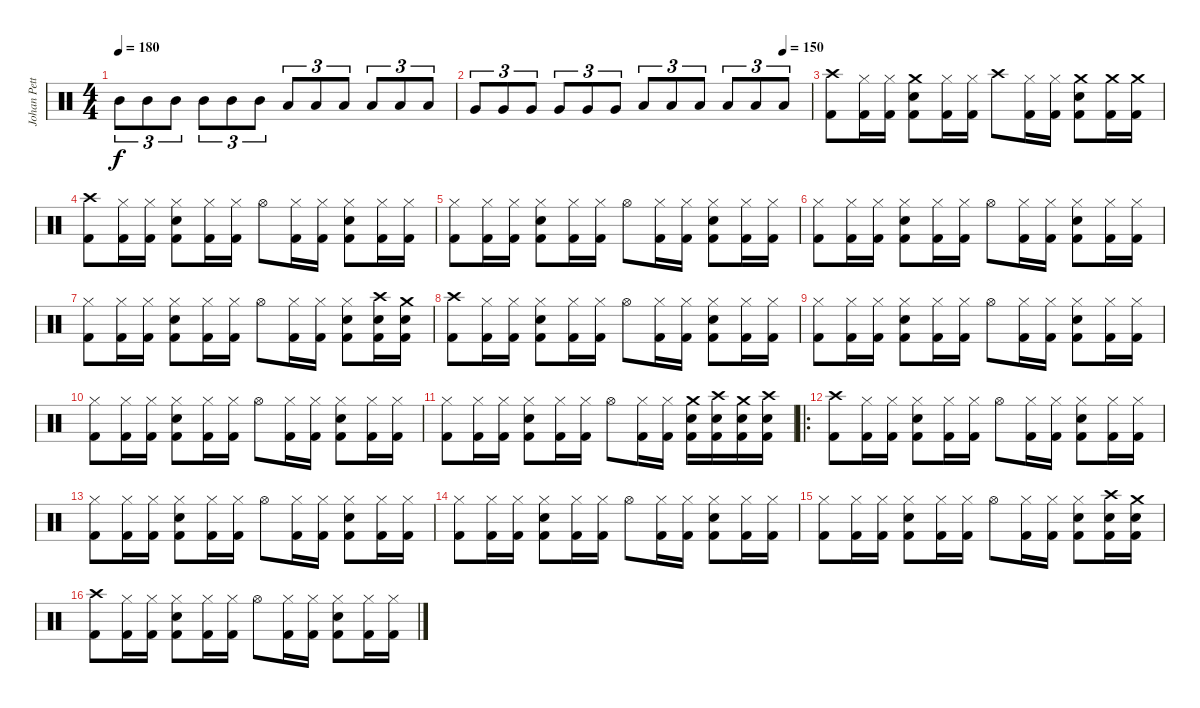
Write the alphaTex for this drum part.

\track ("Johan Petterson" "Johan Pett") {instrument percussion}
\staff {score}
\articulation defaults
\ts (4 4)
\tempo 180
\clef neutral
\ks c "Mid Tom (hit)".8{tu (3 2) dy f} "Mid Tom (hit)".8{tu (3 2)} "Mid Tom (hit)".8{tu (3 2)} "Mid Tom (hit)".8{tu (3 2)} "Mid Tom (hit)".8{tu (3 2)} "Mid Tom (hit)".8{tu (3 2)} "Low Tom (hit)".8{tu (3 2)} "Low Tom (hit)".8{tu (3 2)} "Low Tom (hit)".8{tu (3 2)} "Low Tom (hit)".8{tu (3 2)} "Low Tom (hit)".8{tu (3 2)} "Low Tom (hit)".8{tu (3 2)}
|
\tempo (150 0.9166666666666666)
"Very Low Tom (hit)".8{tu (3 2)} "Very Low Tom (hit)".8{tu (3 2)} "Very Low Tom (hit)".8{tu (3 2)} "Very Low Tom (hit)".8{tu (3 2)} "Very Low Tom (hit)".8{tu (3 2)} "Very Low Tom (hit)".8{tu (3 2)} "Low Floor Tom (hit)".8{tu (3 2)} "Low Floor Tom (hit)".8{tu (3 2)} "Low Floor Tom (hit)".8{tu (3 2)} "Low Floor Tom (hit)".8{tu (3 2)} "Low Floor Tom (hit)".8{tu (3 2)} "Low Floor Tom (hit)".8{tu (3 2)} |
("Crash high (hit)" "Kick (hit) 2").8 ("Hi-Hat (closed)" "Kick (hit) 2").16 ("Hi-Hat (closed)" "Kick (hit) 2").16 ("Crash medium (hit)" "Snare (hit) 2" "Kick (hit) 2").8 ("Hi-Hat (closed)" "Kick (hit) 2").16 ("Hi-Hat (closed)" "Kick (hit) 2").16 "Crash high (hit)".8 ("Hi-Hat (closed)" "Kick (hit) 2").16 ("Hi-Hat (closed)" "Kick (hit) 2").16 ("Crash medium (hit)" "Snare (hit) 2" "Kick (hit) 2").8 ("Crash medium (hit)" "Kick (hit) 2").16 ("Crash medium (hit)" "Kick (hit) 2").16 |
("Crash high (hit)" "Kick (hit) 2").8 ("Hi-Hat (closed)" "Kick (hit) 2").16 ("Hi-Hat (closed)" "Kick (hit) 2").16 ("Hi-Hat (closed)" "Snare (hit) 2" "Kick (hit) 2").8 ("Hi-Hat (closed)" "Kick (hit) 2").16 ("Hi-Hat (closed)" "Kick (hit) 2").16 "Hi-Hat (open)".8 ("Hi-Hat (closed)" "Kick (hit) 2").16 ("Hi-Hat (closed)" "Kick (hit) 2").16 ("Hi-Hat (closed)" "Snare (hit) 2" "Kick (hit) 2").8 ("Hi-Hat (closed)" "Kick (hit) 2").16 ("Hi-Hat (closed)" "Kick (hit) 2").16 |
("Hi-Hat (closed)" "Kick (hit) 2").8 ("Hi-Hat (closed)" "Kick (hit) 2").16 ("Hi-Hat (closed)" "Kick (hit) 2").16 ("Hi-Hat (closed)" "Snare (hit) 2" "Kick (hit) 2").8 ("Hi-Hat (closed)" "Kick (hit) 2").16 ("Hi-Hat (closed)" "Kick (hit) 2").16 "Hi-Hat (open)".8 ("Hi-Hat (closed)" "Kick (hit) 2").16 ("Hi-Hat (closed)" "Kick (hit) 2").16 ("Hi-Hat (closed)" "Snare (hit) 2" "Kick (hit) 2").8 ("Hi-Hat (closed)" "Kick (hit) 2").16 ("Hi-Hat (closed)" "Kick (hit) 2").16 |
("Hi-Hat (closed)" "Kick (hit) 2").8 ("Hi-Hat (closed)" "Kick (hit) 2").16 ("Hi-Hat (closed)" "Kick (hit) 2").16 ("Hi-Hat (closed)" "Snare (hit) 2" "Kick (hit) 2").8 ("Hi-Hat (closed)" "Kick (hit) 2").16 ("Hi-Hat (closed)" "Kick (hit) 2").16 "Hi-Hat (open)".8 ("Hi-Hat (closed)" "Kick (hit) 2").16 ("Hi-Hat (closed)" "Kick (hit) 2").16 ("Hi-Hat (closed)" "Snare (hit) 2" "Kick (hit) 2").8 ("Hi-Hat (closed)" "Kick (hit) 2").16 ("Hi-Hat (closed)" "Kick (hit) 2").16 |
("Hi-Hat (closed)" "Kick (hit) 2").8 ("Hi-Hat (closed)" "Kick (hit) 2").16 ("Hi-Hat (closed)" "Kick (hit) 2").16 ("Hi-Hat (closed)" "Snare (hit) 2" "Kick (hit) 2").8 ("Hi-Hat (closed)" "Kick (hit) 2").16 ("Hi-Hat (closed)" "Kick (hit) 2").16 "Hi-Hat (open)".8 ("Hi-Hat (closed)" "Kick (hit) 2").16 ("Hi-Hat (closed)" "Kick (hit) 2").16 ("Hi-Hat (closed)" "Snare (hit) 2" "Kick (hit) 2").8 ("Crash high (hit)" "Snare (hit) 2" "Kick (hit) 2").16 ("Crash medium (hit)" "Snare (hit) 2" "Kick (hit) 2").16 |
("Crash high (hit)" "Kick (hit) 2").8 ("Hi-Hat (closed)" "Kick (hit) 2").16 ("Hi-Hat (closed)" "Kick (hit) 2").16 ("Hi-Hat (closed)" "Snare (hit) 2" "Kick (hit) 2").8 ("Hi-Hat (closed)" "Kick (hit) 2").16 ("Hi-Hat (closed)" "Kick (hit) 2").16 "Hi-Hat (open)".8 ("Hi-Hat (closed)" "Kick (hit) 2").16 ("Hi-Hat (closed)" "Kick (hit) 2").16 ("Hi-Hat (closed)" "Snare (hit) 2" "Kick (hit) 2").8 ("Hi-Hat (closed)" "Kick (hit) 2").16 ("Hi-Hat (closed)" "Kick (hit) 2").16 |
("Hi-Hat (closed)" "Kick (hit) 2").8 ("Hi-Hat (closed)" "Kick (hit) 2").16 ("Hi-Hat (closed)" "Kick (hit) 2").16 ("Hi-Hat (closed)" "Snare (hit) 2" "Kick (hit) 2").8 ("Hi-Hat (closed)" "Kick (hit) 2").16 ("Hi-Hat (closed)" "Kick (hit) 2").16 "Hi-Hat (open)".8 ("Hi-Hat (closed)" "Kick (hit) 2").16 ("Hi-Hat (closed)" "Kick (hit) 2").16 ("Hi-Hat (closed)" "Snare (hit) 2" "Kick (hit) 2").8 ("Hi-Hat (closed)" "Kick (hit) 2").16 ("Hi-Hat (closed)" "Kick (hit) 2").16 |
("Hi-Hat (closed)" "Kick (hit) 2").8 ("Hi-Hat (closed)" "Kick (hit) 2").16 ("Hi-Hat (closed)" "Kick (hit) 2").16 ("Hi-Hat (closed)" "Snare (hit) 2" "Kick (hit) 2").8 ("Hi-Hat (closed)" "Kick (hit) 2").16 ("Hi-Hat (closed)" "Kick (hit) 2").16 "Hi-Hat (open)".8 ("Hi-Hat (closed)" "Kick (hit) 2").16 ("Hi-Hat (closed)" "Kick (hit) 2").16 ("Hi-Hat (closed)" "Snare (hit) 2" "Kick (hit) 2").8 ("Hi-Hat (closed)" "Kick (hit) 2").16 ("Hi-Hat (closed)" "Kick (hit) 2").16 |
("Hi-Hat (closed)" "Kick (hit) 2").8 ("Hi-Hat (closed)" "Kick (hit) 2").16 ("Hi-Hat (closed)" "Kick (hit) 2").16 ("Hi-Hat (closed)" "Snare (hit) 2" "Kick (hit) 2").8 ("Hi-Hat (closed)" "Kick (hit) 2").16 ("Hi-Hat (closed)" "Kick (hit) 2").16 "Hi-Hat (open)".8 ("Hi-Hat (closed)" "Kick (hit) 2").16 ("Hi-Hat (closed)" "Kick (hit) 2").16 ("Crash medium (hit)" "Snare (hit) 2" "Kick (hit) 2").16 ("Crash high (hit)" "Snare (hit) 2" "Kick (hit) 2").16 ("Crash medium (hit)" "Snare (hit) 2" "Kick (hit) 2").16 ("Crash high (hit)" "Snare (hit) 2" "Kick (hit) 2").16 |
\ro
("Crash high (hit)" "Kick (hit) 2").8 ("Hi-Hat (closed)" "Kick (hit) 2").16 ("Hi-Hat (closed)" "Kick (hit) 2").16 ("Hi-Hat (closed)" "Snare (hit) 2" "Kick (hit) 2").8 ("Hi-Hat (closed)" "Kick (hit) 2").16 ("Hi-Hat (closed)" "Kick (hit) 2").16 "Hi-Hat (open)".8 ("Hi-Hat (closed)" "Kick (hit) 2").16 ("Hi-Hat (closed)" "Kick (hit) 2").16 ("Hi-Hat (closed)" "Snare (hit) 2" "Kick (hit) 2").8 ("Hi-Hat (closed)" "Kick (hit) 2").16 ("Hi-Hat (closed)" "Kick (hit) 2").16 |
("Hi-Hat (closed)" "Kick (hit) 2").8 ("Hi-Hat (closed)" "Kick (hit) 2").16 ("Hi-Hat (closed)" "Kick (hit) 2").16 ("Hi-Hat (closed)" "Snare (hit) 2" "Kick (hit) 2").8 ("Hi-Hat (closed)" "Kick (hit) 2").16 ("Hi-Hat (closed)" "Kick (hit) 2").16 "Hi-Hat (open)".8 ("Hi-Hat (closed)" "Kick (hit) 2").16 ("Hi-Hat (closed)" "Kick (hit) 2").16 ("Hi-Hat (closed)" "Snare (hit) 2" "Kick (hit) 2").8 ("Hi-Hat (closed)" "Kick (hit) 2").16 ("Hi-Hat (closed)" "Kick (hit) 2").16 |
("Hi-Hat (closed)" "Kick (hit) 2").8 ("Hi-Hat (closed)" "Kick (hit) 2").16 ("Hi-Hat (closed)" "Kick (hit) 2").16 ("Hi-Hat (closed)" "Snare (hit) 2" "Kick (hit) 2").8 ("Hi-Hat (closed)" "Kick (hit) 2").16 ("Hi-Hat (closed)" "Kick (hit) 2").16 "Hi-Hat (open)".8 ("Hi-Hat (closed)" "Kick (hit) 2").16 ("Hi-Hat (closed)" "Kick (hit) 2").16 ("Hi-Hat (closed)" "Snare (hit) 2" "Kick (hit) 2").8 ("Hi-Hat (closed)" "Kick (hit) 2").16 ("Hi-Hat (closed)" "Kick (hit) 2").16 |
("Hi-Hat (closed)" "Kick (hit) 2").8 ("Hi-Hat (closed)" "Kick (hit) 2").16 ("Hi-Hat (closed)" "Kick (hit) 2").16 ("Hi-Hat (closed)" "Snare (hit) 2" "Kick (hit) 2").8 ("Hi-Hat (closed)" "Kick (hit) 2").16 ("Hi-Hat (closed)" "Kick (hit) 2").16 "Hi-Hat (open)".8 ("Hi-Hat (closed)" "Kick (hit) 2").16 ("Hi-Hat (closed)" "Kick (hit) 2").16 ("Hi-Hat (closed)" "Snare (hit) 2" "Kick (hit) 2").8 ("Crash high (hit)" "Snare (hit) 2" "Kick (hit) 2").16 ("Crash medium (hit)" "Snare (hit) 2" "Kick (hit) 2").16 |
("Crash high (hit)" "Kick (hit) 2").8 ("Hi-Hat (closed)" "Kick (hit) 2").16 ("Hi-Hat (closed)" "Kick (hit) 2").16 ("Hi-Hat (closed)" "Snare (hit) 2" "Kick (hit) 2").8 ("Hi-Hat (closed)" "Kick (hit) 2").16 ("Hi-Hat (closed)" "Kick (hit) 2").16 "Hi-Hat (open)".8 ("Hi-Hat (closed)" "Kick (hit) 2").16 ("Hi-Hat (closed)" "Kick (hit) 2").16 ("Hi-Hat (closed)" "Snare (hit) 2" "Kick (hit) 2").8 ("Hi-Hat (closed)" "Kick (hit) 2").16 ("Hi-Hat (closed)" "Kick (hit) 2").16
